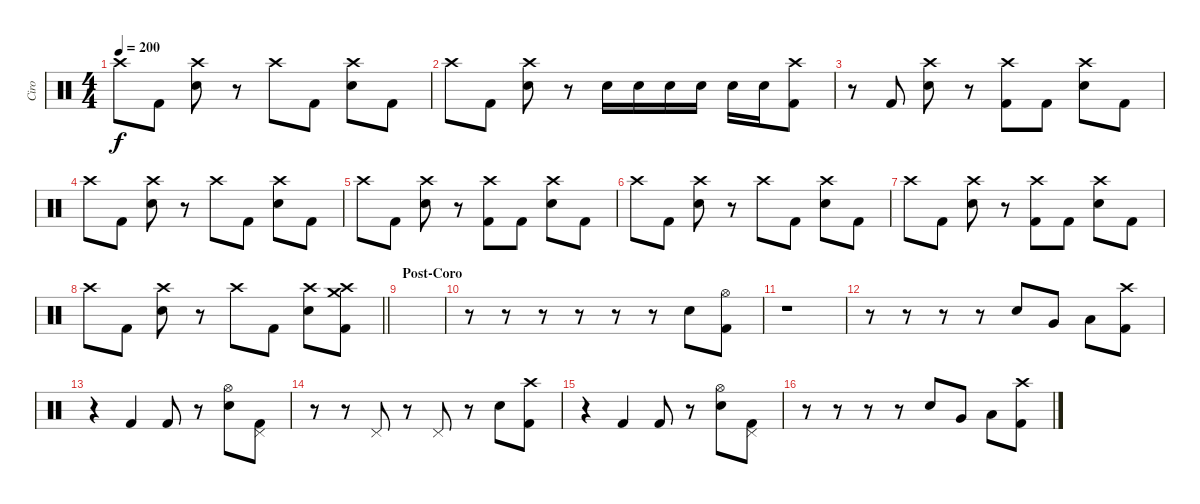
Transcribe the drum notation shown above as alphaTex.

\track ("Ciro" "Ciro") {instrument percussion}
\staff {score}
\articulation defaults
\ts (4 4)
\tempo 200
\clef neutral
\ks c "Crash high (hit)".8{dy f} "Kick (hit) 2".8
("Crash high (hit)" "Snare (hit) 2").8 r.8 "Crash high (hit)".8 "Kick (hit) 2".8 ("Crash high (hit)" "Snare (hit) 2").8 "Kick (hit) 2".8 |
"Crash high (hit)".8 "Kick (hit) 2".8 ("Crash high (hit)" "Snare (hit) 2").8 r.8 "Snare (hit) 2".16 "Snare (hit) 2".16 "Snare (hit) 2".16 "Snare (hit) 2".16 "Snare (hit) 2".16 "Snare (hit) 2".16 ("Crash high (hit)" "Kick (hit) 2").8 |
r.8 "Kick (hit) 2".8 ("Crash high (hit)" "Snare (hit) 2").8 r.8 ("Crash high (hit)" "Kick (hit) 2").8 "Kick (hit) 2".8 ("Crash high (hit)" "Snare (hit) 2").8 "Kick (hit) 2".8 |
"Crash high (hit)".8 "Kick (hit) 2".8 ("Crash high (hit)" "Snare (hit) 2").8 r.8 "Crash high (hit)".8 "Kick (hit) 2".8 ("Crash high (hit)" "Snare (hit) 2").8 "Kick (hit) 2".8 |
"Crash high (hit)".8 "Kick (hit) 2".8 ("Crash high (hit)" "Snare (hit) 2").8 r.8 ("Crash high (hit)" "Kick (hit) 2").8 "Kick (hit) 2".8 ("Crash high (hit)" "Snare (hit) 2").8 "Kick (hit) 2".8 |
"Crash high (hit)".8 "Kick (hit) 2".8 ("Crash high (hit)" "Snare (hit) 2").8 r.8 "Crash high (hit)".8 "Kick (hit) 2".8 ("Crash high (hit)" "Snare (hit) 2").8 "Kick (hit) 2".8 |
"Crash high (hit)".8 "Kick (hit) 2".8 ("Crash high (hit)" "Snare (hit) 2").8 r.8 ("Crash high (hit)" "Kick (hit) 2").8 "Kick (hit) 2".8 ("Crash high (hit)" "Snare (hit) 2").8 "Kick (hit) 2".8 |
\barLineRight lightlight "Crash high (hit)".8 "Kick (hit) 2".8
("Crash high (hit)" "Snare (hit) 2").8 r.8 "Crash high (hit)".8 "Kick (hit) 2".8 ("Crash high (hit)" "Snare (hit) 2").8 ("Crash high (hit)" "Crash medium (hit)" "Kick (hit) 2").8 |
\section ("" "Post-Coro")
|
r.8 r.8 r.8 r.8 r.8 r.8 "Snare (hit) 2".8 ("Hi-Hat (open)" "Kick (hit) 2").8 |
r.1 |
r.8 r.8 r.8 r.8 "Snare (hit) 2".8 "Very Low Tom (hit)".8 "Low Floor Tom (hit)".8 ("Crash high (hit)" "Kick (hit) 2").8 |
r.4 "Kick (hit) 2".4 "Kick (hit) 2".8 r.8 ("Hi-Hat (open)" "Snare (hit) 2").8 ("Pedal Hi-Hat (hit)" "Kick (hit) 2").8 |
r.8 r.8 "Pedal Hi-Hat (hit)".8 r.8 "Pedal Hi-Hat (hit)".8 r.8 "Snare (hit) 2".8 ("Crash high (hit)" "Kick (hit) 2").8 |
r.4 "Kick (hit) 2".4 "Kick (hit) 2".8 r.8 ("Hi-Hat (open)" "Snare (hit) 2").8 ("Pedal Hi-Hat (hit)" "Kick (hit) 2").8 |
r.8 r.8 r.8 r.8 "Snare (hit) 2".8 "Very Low Tom (hit)".8 "Low Floor Tom (hit)".8 ("Crash high (hit)" "Kick (hit) 2").8
